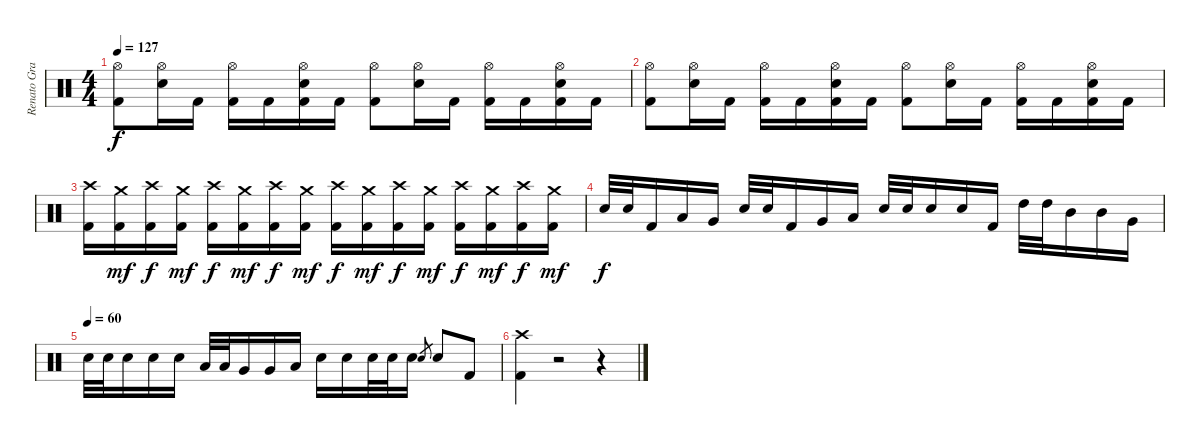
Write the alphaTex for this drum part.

\track ("Renato Graccia (drums)" "Renato Gra") {instrument percussion}
\staff {score}
\articulation defaults
\ts (4 4)
\tempo 127
\clef neutral
\ks c
("Hi-Hat (open)" "Kick (hit) 2").8{dy f} ("Hi-Hat (open)" "Snare (hit) 2").16 "Kick (hit) 2".16 ("Hi-Hat (open)" "Kick (hit) 2").16 "Kick (hit) 2".16 ("Hi-Hat (open)" "Snare (hit) 2" "Kick (hit) 2").16 "Kick (hit) 2".16 ("Hi-Hat (open)" "Kick (hit) 2").8 ("Hi-Hat (open)" "Snare (hit) 2").16 "Kick (hit) 2".16 ("Hi-Hat (open)" "Kick (hit) 2").16 "Kick (hit) 2".16 ("Hi-Hat (open)" "Snare (hit) 2" "Kick (hit) 2").16 "Kick (hit) 2".16 |
("Hi-Hat (open)" "Kick (hit) 2").8 ("Hi-Hat (open)" "Snare (hit) 2").16 "Kick (hit) 2".16 ("Hi-Hat (open)" "Kick (hit) 2").16 "Kick (hit) 2".16 ("Hi-Hat (open)" "Snare (hit) 2" "Kick (hit) 2").16 "Kick (hit) 2".16 ("Hi-Hat (open)" "Kick (hit) 2").8 ("Hi-Hat (open)" "Snare (hit) 2").16 "Kick (hit) 2".16 ("Hi-Hat (open)" "Kick (hit) 2").16 "Kick (hit) 2".16 ("Hi-Hat (open)" "Snare (hit) 2" "Kick (hit) 2").16 "Kick (hit) 2".16 |
("Crash high (hit)" "Kick (hit) 2").16 ("Crash medium (hit)" "Kick (hit) 2").16{dy mf} ("Crash high (hit)" "Kick (hit) 2").16{dy f} ("Crash medium (hit)" "Kick (hit) 2").16{dy mf} ("Crash high (hit)" "Kick (hit) 2").16{dy f} ("Crash medium (hit)" "Kick (hit) 2").16{dy mf} ("Crash high (hit)" "Kick (hit) 2").16{dy f} ("Crash medium (hit)" "Kick (hit) 2").16{dy mf} ("Crash high (hit)" "Kick (hit) 2").16{dy f} ("Crash medium (hit)" "Kick (hit) 2").16{dy mf} ("Crash high (hit)" "Kick (hit) 2").16{dy f} ("Crash medium (hit)" "Kick (hit) 2").16{dy mf} ("Crash high (hit)" "Kick (hit) 2").16{dy f} ("Crash medium (hit)" "Kick (hit) 2").16{dy mf} ("Crash high (hit)" "Kick (hit) 2").16{dy f} ("Crash medium (hit)" "Kick (hit) 2").16{dy mf} |
"Snare (hit) 2".32{dy f} "Snare (hit) 2".32 "Kick (hit) 2".16 "Low Tom (hit)".16 "Very Low Tom (hit)".16 "Snare (hit) 2".32 "Snare (hit) 2".32 "Kick (hit) 2".16 "Very Low Tom (hit)".16 "Low Floor Tom (hit)".16 "Snare (hit) 2".32 "Snare (hit) 2".32 "Snare (hit) 2".16 "Snare (hit) 2".16 "Kick (hit) 2".16 "High Tom (hit)".32 "High Tom (hit)".32 "Mid Tom (hit)".16 "Mid Tom (hit)".16 "Very Low Tom (hit)".16 |
\tempo (60)
"Snare (hit) 2".32 "Snare (hit) 2".32 "Snare (hit) 2".16 "Snare (hit) 2".16 "Snare (hit) 2".16 "Low Tom (hit)".32 "Low Tom (hit)".32 "Very Low Tom (hit)".16 "Very Low Tom (hit)".16 "Low Floor Tom (hit)".16 "Snare (hit) 2".16 "Snare (hit) 2".16 "Snare (hit) 2".32 "Snare (hit) 2".32 "Snare (hit) 2".16 "Snare (hit) 2".8{gr} "Snare (hit) 2".8 "Kick (hit) 2".8 |
("Crash high (hit)" "Kick (hit) 2").4 r.2{volume 0} r.4
